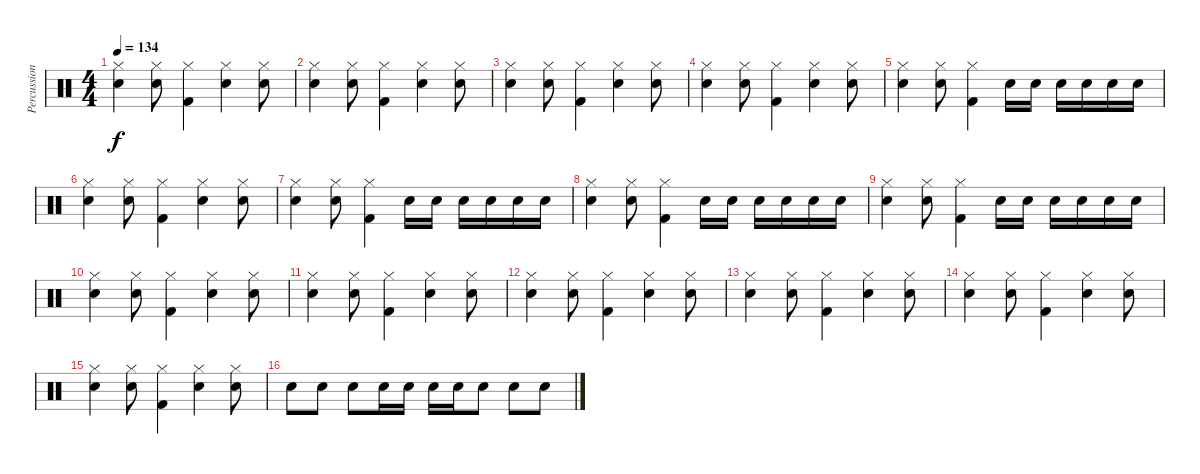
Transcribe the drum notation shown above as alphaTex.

\track ("Percussion" "Percussion") {instrument percussion}
\staff {score}
\articulation defaults
\ts (4 4)
\tempo 134
\clef neutral
\ks c
("Hi-Hat (closed)" "Electric Snare (hit)").4{dy f} ("Hi-Hat (closed)" "Electric Snare (hit)").8 ("Hi-Hat (closed)" "Kick (hit) 2").4 ("Hi-Hat (closed)" "Electric Snare (hit)").4 ("Hi-Hat (closed)" "Electric Snare (hit)").8 |
("Hi-Hat (closed)" "Electric Snare (hit)").4 ("Hi-Hat (closed)" "Electric Snare (hit)").8 ("Hi-Hat (closed)" "Kick (hit) 2").4 ("Hi-Hat (closed)" "Electric Snare (hit)").4 ("Hi-Hat (closed)" "Electric Snare (hit)").8 |
("Hi-Hat (closed)" "Electric Snare (hit)").4 ("Hi-Hat (closed)" "Electric Snare (hit)").8 ("Hi-Hat (closed)" "Kick (hit) 2").4 ("Hi-Hat (closed)" "Electric Snare (hit)").4 ("Hi-Hat (closed)" "Electric Snare (hit)").8 |
("Hi-Hat (closed)" "Electric Snare (hit)").4 ("Hi-Hat (closed)" "Electric Snare (hit)").8 ("Hi-Hat (closed)" "Kick (hit) 2").4 ("Hi-Hat (closed)" "Electric Snare (hit)").4 ("Hi-Hat (closed)" "Electric Snare (hit)").8 |
("Hi-Hat (closed)" "Electric Snare (hit)").4 ("Hi-Hat (closed)" "Electric Snare (hit)").8 ("Hi-Hat (closed)" "Kick (hit) 2").4 "Electric Snare (hit)".16 "Electric Snare (hit)".16 "Electric Snare (hit)".16 "Electric Snare (hit)".16 "Electric Snare (hit)".16 "Electric Snare (hit)".16 |
("Hi-Hat (closed)" "Electric Snare (hit)").4 ("Hi-Hat (closed)" "Electric Snare (hit)").8 ("Hi-Hat (closed)" "Kick (hit) 2").4 ("Hi-Hat (closed)" "Electric Snare (hit)").4 ("Hi-Hat (closed)" "Electric Snare (hit)").8 |
("Hi-Hat (closed)" "Electric Snare (hit)").4 ("Hi-Hat (closed)" "Electric Snare (hit)").8 ("Hi-Hat (closed)" "Kick (hit) 2").4 "Electric Snare (hit)".16 "Electric Snare (hit)".16 "Electric Snare (hit)".16 "Electric Snare (hit)".16 "Electric Snare (hit)".16 "Electric Snare (hit)".16 |
("Hi-Hat (closed)" "Electric Snare (hit)").4 ("Hi-Hat (closed)" "Electric Snare (hit)").8 ("Hi-Hat (closed)" "Kick (hit) 2").4 "Electric Snare (hit)".16 "Electric Snare (hit)".16 "Electric Snare (hit)".16 "Electric Snare (hit)".16 "Electric Snare (hit)".16 "Electric Snare (hit)".16 |
("Hi-Hat (closed)" "Electric Snare (hit)").4 ("Hi-Hat (closed)" "Electric Snare (hit)").8 ("Hi-Hat (closed)" "Kick (hit) 2").4 "Electric Snare (hit)".16 "Electric Snare (hit)".16 "Electric Snare (hit)".16 "Electric Snare (hit)".16 "Electric Snare (hit)".16 "Electric Snare (hit)".16 |
("Hi-Hat (closed)" "Electric Snare (hit)").4 ("Hi-Hat (closed)" "Electric Snare (hit)").8 ("Hi-Hat (closed)" "Kick (hit) 2").4 ("Hi-Hat (closed)" "Electric Snare (hit)").4 ("Hi-Hat (closed)" "Electric Snare (hit)").8 |
("Hi-Hat (closed)" "Electric Snare (hit)").4 ("Hi-Hat (closed)" "Electric Snare (hit)").8 ("Hi-Hat (closed)" "Kick (hit) 2").4 ("Hi-Hat (closed)" "Electric Snare (hit)").4 ("Hi-Hat (closed)" "Electric Snare (hit)").8 |
("Hi-Hat (closed)" "Electric Snare (hit)").4 ("Hi-Hat (closed)" "Electric Snare (hit)").8 ("Hi-Hat (closed)" "Kick (hit) 2").4 ("Hi-Hat (closed)" "Electric Snare (hit)").4 ("Hi-Hat (closed)" "Electric Snare (hit)").8 |
("Hi-Hat (closed)" "Electric Snare (hit)").4 ("Hi-Hat (closed)" "Electric Snare (hit)").8 ("Hi-Hat (closed)" "Kick (hit) 2").4 ("Hi-Hat (closed)" "Electric Snare (hit)").4 ("Hi-Hat (closed)" "Electric Snare (hit)").8 |
("Hi-Hat (closed)" "Electric Snare (hit)").4 ("Hi-Hat (closed)" "Electric Snare (hit)").8 ("Hi-Hat (closed)" "Kick (hit) 2").4 ("Hi-Hat (closed)" "Electric Snare (hit)").4 ("Hi-Hat (closed)" "Electric Snare (hit)").8 |
("Hi-Hat (closed)" "Electric Snare (hit)").4 ("Hi-Hat (closed)" "Electric Snare (hit)").8 ("Hi-Hat (closed)" "Kick (hit) 2").4 ("Hi-Hat (closed)" "Electric Snare (hit)").4 ("Hi-Hat (closed)" "Electric Snare (hit)").8 |
"Electric Snare (hit)".8 "Electric Snare (hit)".8 "Electric Snare (hit)".8 "Electric Snare (hit)".16 "Electric Snare (hit)".16 "Electric Snare (hit)".16 "Electric Snare (hit)".16 "Electric Snare (hit)".8 "Electric Snare (hit)".8 "Electric Snare (hit)".8
